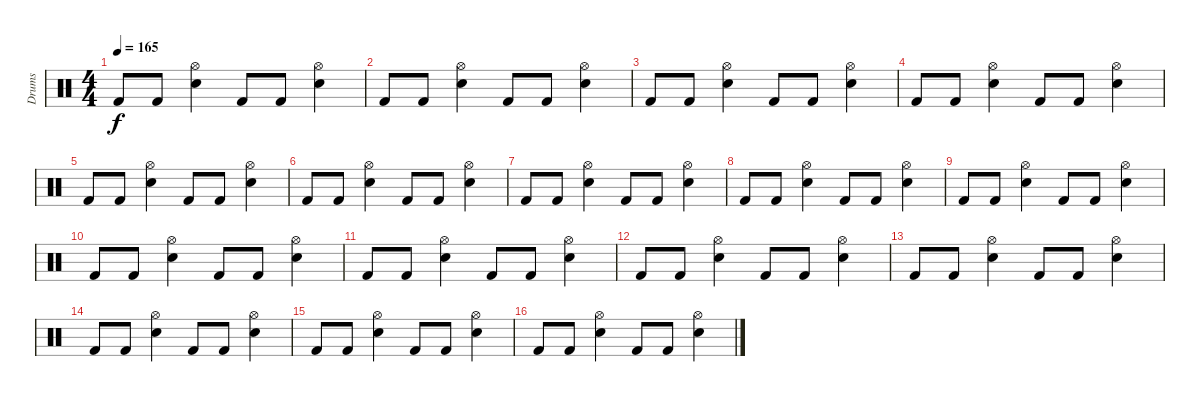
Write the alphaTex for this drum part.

\track ("Drums" "Drums") {instrument percussion}
\staff {score}
\articulation defaults
\ts (4 4)
\tempo 165
\clef neutral
\ks c "Kick (hit) 2".8{dy f} "Kick (hit) 2".8
("Snare (hit) 2" "Hi-Hat (open)").4 "Kick (hit) 2".8 "Kick (hit) 2".8 ("Snare (hit) 2" "Hi-Hat (open)").4 |
"Kick (hit) 2".8 "Kick (hit) 2".8 ("Snare (hit) 2" "Hi-Hat (open)").4 "Kick (hit) 2".8 "Kick (hit) 2".8 ("Snare (hit) 2" "Hi-Hat (open)").4 |
"Kick (hit) 2".8 "Kick (hit) 2".8 ("Snare (hit) 2" "Hi-Hat (open)").4 "Kick (hit) 2".8 "Kick (hit) 2".8 ("Snare (hit) 2" "Hi-Hat (open)").4 |
"Kick (hit) 2".8 "Kick (hit) 2".8 ("Snare (hit) 2" "Hi-Hat (open)").4 "Kick (hit) 2".8 "Kick (hit) 2".8 ("Snare (hit) 2" "Hi-Hat (open)").4 |
"Kick (hit) 2".8 "Kick (hit) 2".8 ("Snare (hit) 2" "Hi-Hat (open)").4 "Kick (hit) 2".8 "Kick (hit) 2".8 ("Snare (hit) 2" "Hi-Hat (open)").4 |
"Kick (hit) 2".8 "Kick (hit) 2".8 ("Snare (hit) 2" "Hi-Hat (open)").4 "Kick (hit) 2".8 "Kick (hit) 2".8 ("Snare (hit) 2" "Hi-Hat (open)").4 |
"Kick (hit) 2".8 "Kick (hit) 2".8 ("Snare (hit) 2" "Hi-Hat (open)").4 "Kick (hit) 2".8 "Kick (hit) 2".8 ("Snare (hit) 2" "Hi-Hat (open)").4 |
"Kick (hit) 2".8 "Kick (hit) 2".8 ("Snare (hit) 2" "Hi-Hat (open)").4 "Kick (hit) 2".8 "Kick (hit) 2".8 ("Snare (hit) 2" "Hi-Hat (open)").4 |
"Kick (hit) 2".8 "Kick (hit) 2".8 ("Snare (hit) 2" "Hi-Hat (open)").4 "Kick (hit) 2".8 "Kick (hit) 2".8 ("Snare (hit) 2" "Hi-Hat (open)").4 |
"Kick (hit) 2".8 "Kick (hit) 2".8 ("Snare (hit) 2" "Hi-Hat (open)").4 "Kick (hit) 2".8 "Kick (hit) 2".8 ("Snare (hit) 2" "Hi-Hat (open)").4 |
"Kick (hit) 2".8 "Kick (hit) 2".8 ("Snare (hit) 2" "Hi-Hat (open)").4 "Kick (hit) 2".8 "Kick (hit) 2".8 ("Snare (hit) 2" "Hi-Hat (open)").4 |
"Kick (hit) 2".8 "Kick (hit) 2".8 ("Snare (hit) 2" "Hi-Hat (open)").4 "Kick (hit) 2".8 "Kick (hit) 2".8 ("Snare (hit) 2" "Hi-Hat (open)").4 |
"Kick (hit) 2".8 "Kick (hit) 2".8 ("Snare (hit) 2" "Hi-Hat (open)").4 "Kick (hit) 2".8 "Kick (hit) 2".8 ("Snare (hit) 2" "Hi-Hat (open)").4 |
"Kick (hit) 2".8 "Kick (hit) 2".8 ("Snare (hit) 2" "Hi-Hat (open)").4 "Kick (hit) 2".8 "Kick (hit) 2".8 ("Snare (hit) 2" "Hi-Hat (open)").4 |
"Kick (hit) 2".8 "Kick (hit) 2".8 ("Snare (hit) 2" "Hi-Hat (open)").4 "Kick (hit) 2".8 "Kick (hit) 2".8 ("Snare (hit) 2" "Hi-Hat (open)").4 |
"Kick (hit) 2".8 "Kick (hit) 2".8 ("Snare (hit) 2" "Hi-Hat (open)").4 "Kick (hit) 2".8 "Kick (hit) 2".8 ("Snare (hit) 2" "Hi-Hat (open)").4
